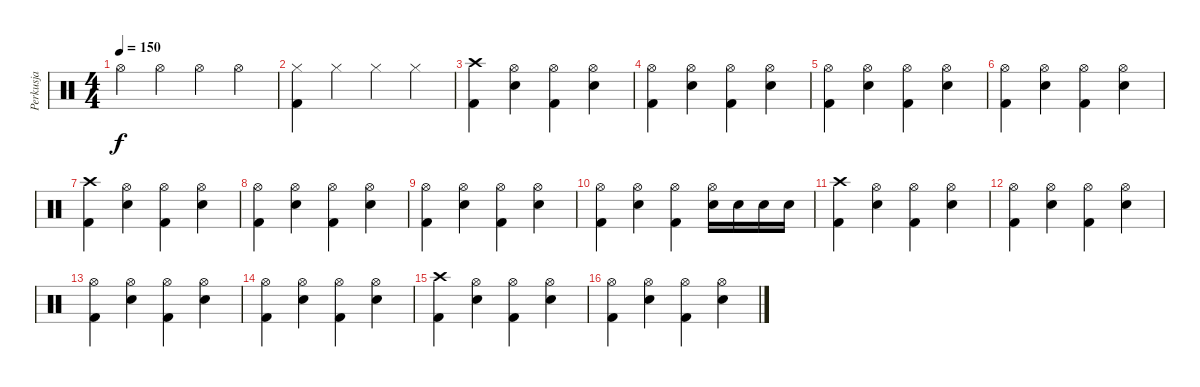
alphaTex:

\track ("Perkusja" "Perkusja") {instrument percussion}
\staff {score}
\articulation defaults
\ts (4 4)
\tempo 150
\clef neutral
\ks c "Hi-Hat (open)".4{dy f} "Hi-Hat (open)".4 "Hi-Hat (open)".4 "Hi-Hat (open)".4
|
("Hi-Hat (closed)" "Kick (hit) 2").4 "Hi-Hat (closed)".4 "Hi-Hat (closed)".4 "Hi-Hat (closed)".4 |
("Crash high (hit)" "Kick (hit) 2").4 ("Hi-Hat (open)" "Electric Snare (hit)").4 ("Hi-Hat (open)" "Kick (hit) 2").4 ("Hi-Hat (open)" "Electric Snare (hit)").4 |
("Hi-Hat (open)" "Kick (hit) 2").4 ("Hi-Hat (open)" "Electric Snare (hit)").4 ("Hi-Hat (open)" "Kick (hit) 2").4 ("Hi-Hat (open)" "Electric Snare (hit)").4 |
("Hi-Hat (open)" "Kick (hit) 2").4 ("Hi-Hat (open)" "Electric Snare (hit)").4 ("Hi-Hat (open)" "Kick (hit) 2").4 ("Hi-Hat (open)" "Electric Snare (hit)").4 |
("Hi-Hat (open)" "Kick (hit) 2").4 ("Hi-Hat (open)" "Electric Snare (hit)").4 ("Hi-Hat (open)" "Kick (hit) 2").4 ("Hi-Hat (open)" "Electric Snare (hit)").4 |
("Crash high (hit)" "Kick (hit) 2").4 ("Hi-Hat (open)" "Electric Snare (hit)").4 ("Hi-Hat (open)" "Kick (hit) 2").4 ("Hi-Hat (open)" "Electric Snare (hit)").4 |
("Hi-Hat (open)" "Kick (hit) 2").4 ("Hi-Hat (open)" "Electric Snare (hit)").4 ("Hi-Hat (open)" "Kick (hit) 2").4 ("Hi-Hat (open)" "Electric Snare (hit)").4 |
("Hi-Hat (open)" "Kick (hit) 2").4 ("Hi-Hat (open)" "Electric Snare (hit)").4 ("Hi-Hat (open)" "Kick (hit) 2").4 ("Hi-Hat (open)" "Electric Snare (hit)").4 |
("Hi-Hat (open)" "Kick (hit) 2").4 ("Hi-Hat (open)" "Electric Snare (hit)").4 ("Hi-Hat (open)" "Kick (hit) 2").4 ("Hi-Hat (open)" "Electric Snare (hit)").16 "Electric Snare (hit)".16 "Electric Snare (hit)".16 "Electric Snare (hit)".16 |
("Crash high (hit)" "Kick (hit) 2").4 ("Hi-Hat (open)" "Electric Snare (hit)").4 ("Hi-Hat (open)" "Kick (hit) 2").4 ("Hi-Hat (open)" "Electric Snare (hit)").4 |
("Hi-Hat (open)" "Kick (hit) 2").4 ("Hi-Hat (open)" "Electric Snare (hit)").4 ("Hi-Hat (open)" "Kick (hit) 2").4 ("Hi-Hat (open)" "Electric Snare (hit)").4 |
("Hi-Hat (open)" "Kick (hit) 2").4 ("Hi-Hat (open)" "Electric Snare (hit)").4 ("Hi-Hat (open)" "Kick (hit) 2").4 ("Hi-Hat (open)" "Electric Snare (hit)").4 |
("Hi-Hat (open)" "Kick (hit) 2").4 ("Hi-Hat (open)" "Electric Snare (hit)").4 ("Hi-Hat (open)" "Kick (hit) 2").4 ("Hi-Hat (open)" "Electric Snare (hit)").4 |
("Crash high (hit)" "Kick (hit) 2").4 ("Hi-Hat (open)" "Electric Snare (hit)").4 ("Hi-Hat (open)" "Kick (hit) 2").4 ("Hi-Hat (open)" "Electric Snare (hit)").4 |
("Hi-Hat (open)" "Kick (hit) 2").4 ("Hi-Hat (open)" "Electric Snare (hit)").4 ("Hi-Hat (open)" "Kick (hit) 2").4 ("Hi-Hat (open)" "Electric Snare (hit)").4
